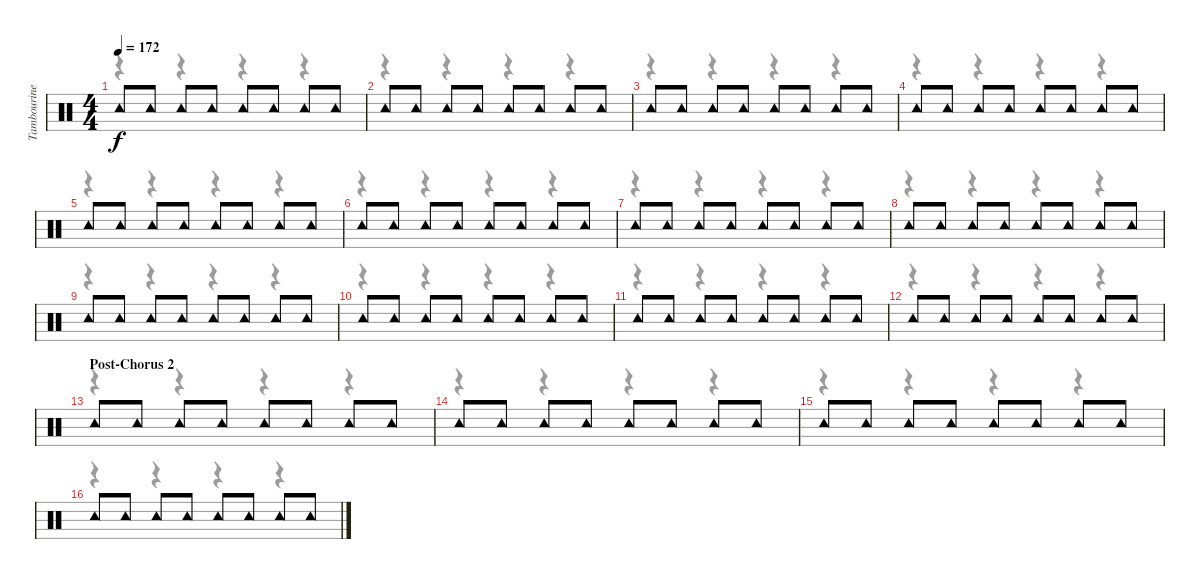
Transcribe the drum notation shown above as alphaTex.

\track ("Tambourine" "Tambourine") {instrument percussion}
\staff {score}
\articulation defaults
\voice
\ts (4 4)
\tempo 172
\clef neutral
\ks c "Tambourine (hit)".8{dy f} "Tambourine (hit)".8 "Tambourine (hit)".8 "Tambourine (hit)".8 "Tambourine (hit)".8 "Tambourine (hit)".8 "Tambourine (hit)".8 "Tambourine (hit)".8
|
"Tambourine (hit)".8 "Tambourine (hit)".8 "Tambourine (hit)".8 "Tambourine (hit)".8 "Tambourine (hit)".8 "Tambourine (hit)".8 "Tambourine (hit)".8 "Tambourine (hit)".8 |
"Tambourine (hit)".8 "Tambourine (hit)".8 "Tambourine (hit)".8 "Tambourine (hit)".8 "Tambourine (hit)".8 "Tambourine (hit)".8 "Tambourine (hit)".8 "Tambourine (hit)".8 |
"Tambourine (hit)".8 "Tambourine (hit)".8 "Tambourine (hit)".8 "Tambourine (hit)".8 "Tambourine (hit)".8 "Tambourine (hit)".8 "Tambourine (hit)".8 "Tambourine (hit)".8 |
"Tambourine (hit)".8 "Tambourine (hit)".8 "Tambourine (hit)".8 "Tambourine (hit)".8 "Tambourine (hit)".8 "Tambourine (hit)".8 "Tambourine (hit)".8 "Tambourine (hit)".8 |
"Tambourine (hit)".8 "Tambourine (hit)".8 "Tambourine (hit)".8 "Tambourine (hit)".8 "Tambourine (hit)".8 "Tambourine (hit)".8 "Tambourine (hit)".8 "Tambourine (hit)".8 |
"Tambourine (hit)".8 "Tambourine (hit)".8 "Tambourine (hit)".8 "Tambourine (hit)".8 "Tambourine (hit)".8 "Tambourine (hit)".8 "Tambourine (hit)".8 "Tambourine (hit)".8 |
"Tambourine (hit)".8 "Tambourine (hit)".8 "Tambourine (hit)".8 "Tambourine (hit)".8 "Tambourine (hit)".8 "Tambourine (hit)".8 "Tambourine (hit)".8 "Tambourine (hit)".8 |
"Tambourine (hit)".8 "Tambourine (hit)".8 "Tambourine (hit)".8 "Tambourine (hit)".8 "Tambourine (hit)".8 "Tambourine (hit)".8 "Tambourine (hit)".8 "Tambourine (hit)".8 |
"Tambourine (hit)".8 "Tambourine (hit)".8 "Tambourine (hit)".8 "Tambourine (hit)".8 "Tambourine (hit)".8 "Tambourine (hit)".8 "Tambourine (hit)".8 "Tambourine (hit)".8 |
"Tambourine (hit)".8 "Tambourine (hit)".8 "Tambourine (hit)".8 "Tambourine (hit)".8 "Tambourine (hit)".8 "Tambourine (hit)".8 "Tambourine (hit)".8 "Tambourine (hit)".8 |
"Tambourine (hit)".8 "Tambourine (hit)".8 "Tambourine (hit)".8 "Tambourine (hit)".8 "Tambourine (hit)".8 "Tambourine (hit)".8 "Tambourine (hit)".8 "Tambourine (hit)".8 |
\section ("" "Post-Chorus 2")
"Tambourine (hit)".8 "Tambourine (hit)".8 "Tambourine (hit)".8 "Tambourine (hit)".8 "Tambourine (hit)".8 "Tambourine (hit)".8 "Tambourine (hit)".8 "Tambourine (hit)".8 |
"Tambourine (hit)".8 "Tambourine (hit)".8 "Tambourine (hit)".8 "Tambourine (hit)".8 "Tambourine (hit)".8 "Tambourine (hit)".8 "Tambourine (hit)".8 "Tambourine (hit)".8 |
"Tambourine (hit)".8 "Tambourine (hit)".8 "Tambourine (hit)".8 "Tambourine (hit)".8 "Tambourine (hit)".8 "Tambourine (hit)".8 "Tambourine (hit)".8 "Tambourine (hit)".8 |
"Tambourine (hit)".8 "Tambourine (hit)".8 "Tambourine (hit)".8 "Tambourine (hit)".8 "Tambourine (hit)".8 "Tambourine (hit)".8 "Tambourine (hit)".8 "Tambourine (hit)".8
\voice
\clef neutral
\ottava regular
\simile none
\ks c
r.4{dy f} r.4 r.4 r.4 |
r.4 r.4 r.4 r.4 |
r.4 r.4 r.4 r.4 |
r.4 r.4 r.4 r.4 |
r.4 r.4 r.4 r.4 |
r.4 r.4 r.4 r.4 |
r.4 r.4 r.4 r.4 |
r.4 r.4 r.4 r.4 |
r.4 r.4 r.4 r.4 |
r.4 r.4 r.4 r.4 |
r.4 r.4 r.4 r.4 |
r.4 r.4 r.4 r.4 |
r.4 r.4 r.4 r.4 |
r.4 r.4 r.4 r.4 |
r.4 r.4 r.4 r.4 |
r.4 r.4 r.4 r.4
